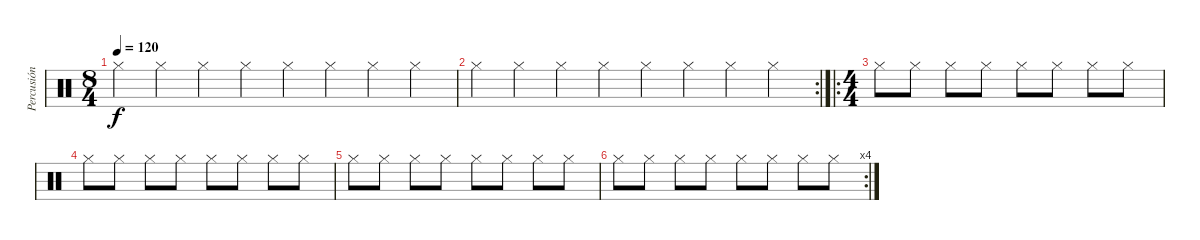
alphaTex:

\track ("Percusión" "Percusión") {instrument percussion}
\staff {score}
\articulation defaults
\ts (8 4)
\tempo 120
\clef neutral
\ks c "Hi-Hat (closed)".4{dy f} "Hi-Hat (closed)".4 "Hi-Hat (closed)".4 "Hi-Hat (closed)".4 "Hi-Hat (closed)".4 "Hi-Hat (closed)".4 "Hi-Hat (closed)".4 "Hi-Hat (closed)".4
|
\rc 2 "Hi-Hat (closed)".4 "Hi-Hat (closed)".4 "Hi-Hat (closed)".4 "Hi-Hat (closed)".4 "Hi-Hat (closed)".4 "Hi-Hat (closed)".4 "Hi-Hat (closed)".4 "Hi-Hat (closed)".4
|
\ro
\ts (4 4)
"Hi-Hat (closed)".8 "Hi-Hat (closed)".8 "Hi-Hat (closed)".8 "Hi-Hat (closed)".8 "Hi-Hat (closed)".8 "Hi-Hat (closed)".8 "Hi-Hat (closed)".8 "Hi-Hat (closed)".8 |
"Hi-Hat (closed)".8 "Hi-Hat (closed)".8 "Hi-Hat (closed)".8 "Hi-Hat (closed)".8 "Hi-Hat (closed)".8 "Hi-Hat (closed)".8 "Hi-Hat (closed)".8 "Hi-Hat (closed)".8 |
"Hi-Hat (closed)".8 "Hi-Hat (closed)".8 "Hi-Hat (closed)".8 "Hi-Hat (closed)".8 "Hi-Hat (closed)".8 "Hi-Hat (closed)".8 "Hi-Hat (closed)".8 "Hi-Hat (closed)".8 |
\rc 4 "Hi-Hat (closed)".8 "Hi-Hat (closed)".8 "Hi-Hat (closed)".8 "Hi-Hat (closed)".8 "Hi-Hat (closed)".8 "Hi-Hat (closed)".8 "Hi-Hat (closed)".8 "Hi-Hat (closed)".8
